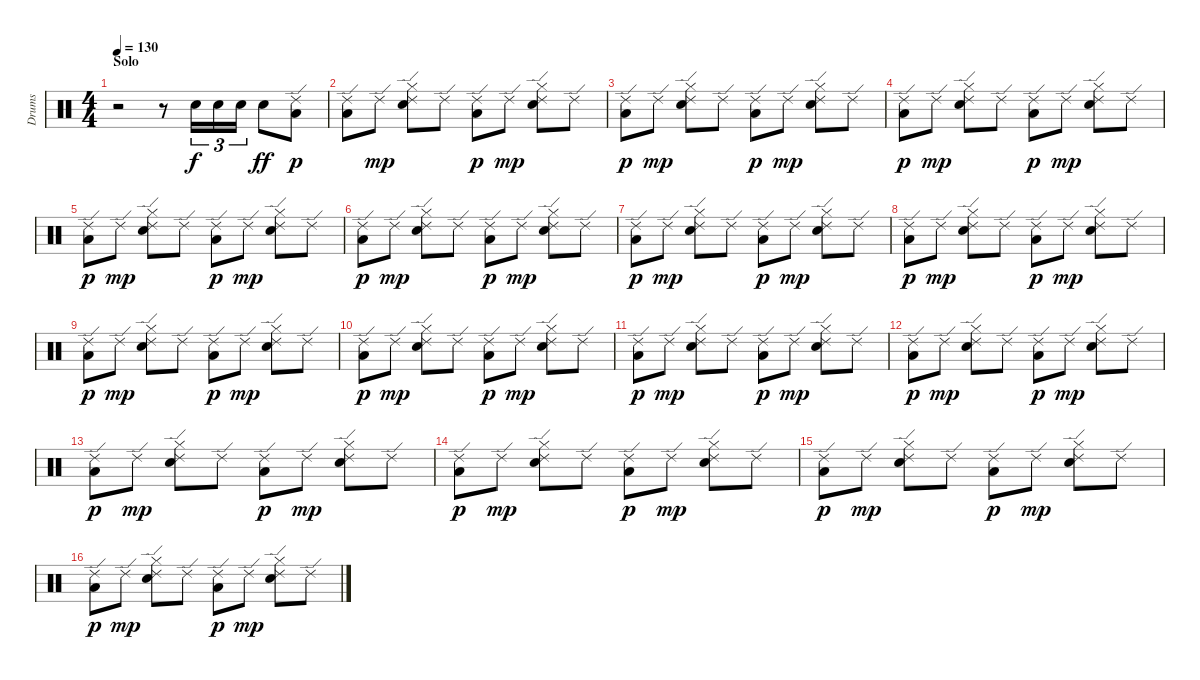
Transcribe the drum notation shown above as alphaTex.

\track ("Drums" "Drums") {instrument percussion}
\staff {score}
\articulation defaults
\ts (4 4)
\section ("" "Solo")
\tempo 130
\clef neutral
\ks c
r.2{dy mp} r.8 "Snare (hit) 2".16{tu (3 2) dy f} "Snare (hit) 2".16{tu (3 2)} "Snare (hit) 2".16{tu (3 2)} "Snare (hit) 2".8{dy ff} ("Ride (edge) 2" "Low Floor Tom (hit)").8{dy p} |
("Ride (edge) 2" "Low Floor Tom (hit)").8 "Ride (edge) 2".8{dy mp} ("Ride (edge) 2" "Electric Snare (hit)" "Hi-Hat (closed)").8 "Ride (edge) 2".8 ("Ride (edge) 2" "Low Floor Tom (hit)").8{dy p} "Ride (edge) 2".8{dy mp} ("Ride (edge) 2" "Electric Snare (hit)" "Hi-Hat (closed)").8 "Ride (edge) 2".8 |
("Ride (edge) 2" "Low Floor Tom (hit)").8{dy p} "Ride (edge) 2".8{dy mp} ("Ride (edge) 2" "Electric Snare (hit)" "Hi-Hat (closed)").8 "Ride (edge) 2".8 ("Ride (edge) 2" "Low Floor Tom (hit)").8{dy p} "Ride (edge) 2".8{dy mp} ("Ride (edge) 2" "Electric Snare (hit)" "Hi-Hat (closed)").8 "Ride (edge) 2".8 |
("Ride (edge) 2" "Low Floor Tom (hit)").8{dy p} "Ride (edge) 2".8{dy mp} ("Ride (edge) 2" "Electric Snare (hit)" "Hi-Hat (closed)").8 "Ride (edge) 2".8 ("Ride (edge) 2" "Low Floor Tom (hit)").8{dy p} "Ride (edge) 2".8{dy mp} ("Ride (edge) 2" "Electric Snare (hit)" "Hi-Hat (closed)").8 "Ride (edge) 2".8 |
("Ride (edge) 2" "Low Floor Tom (hit)").8{dy p} "Ride (edge) 2".8{dy mp} ("Ride (edge) 2" "Electric Snare (hit)" "Hi-Hat (closed)").8 "Ride (edge) 2".8 ("Ride (edge) 2" "Low Floor Tom (hit)").8{dy p} "Ride (edge) 2".8{dy mp} ("Ride (edge) 2" "Electric Snare (hit)" "Hi-Hat (closed)").8 "Ride (edge) 2".8 |
("Ride (edge) 2" "Low Floor Tom (hit)").8{dy p} "Ride (edge) 2".8{dy mp} ("Ride (edge) 2" "Electric Snare (hit)" "Hi-Hat (closed)").8 "Ride (edge) 2".8 ("Ride (edge) 2" "Low Floor Tom (hit)").8{dy p} "Ride (edge) 2".8{dy mp} ("Ride (edge) 2" "Electric Snare (hit)" "Hi-Hat (closed)").8 "Ride (edge) 2".8 |
("Ride (edge) 2" "Low Floor Tom (hit)").8{dy p} "Ride (edge) 2".8{dy mp} ("Ride (edge) 2" "Electric Snare (hit)" "Hi-Hat (closed)").8 "Ride (edge) 2".8 ("Ride (edge) 2" "Low Floor Tom (hit)").8{dy p} "Ride (edge) 2".8{dy mp} ("Ride (edge) 2" "Electric Snare (hit)" "Hi-Hat (closed)").8 "Ride (edge) 2".8 |
("Ride (edge) 2" "Low Floor Tom (hit)").8{dy p} "Ride (edge) 2".8{dy mp} ("Ride (edge) 2" "Electric Snare (hit)" "Hi-Hat (closed)").8 "Ride (edge) 2".8 ("Ride (edge) 2" "Low Floor Tom (hit)").8{dy p} "Ride (edge) 2".8{dy mp} ("Ride (edge) 2" "Electric Snare (hit)" "Hi-Hat (closed)").8 "Ride (edge) 2".8 |
("Ride (edge) 2" "Low Floor Tom (hit)").8{dy p} "Ride (edge) 2".8{dy mp} ("Ride (edge) 2" "Electric Snare (hit)" "Hi-Hat (closed)").8 "Ride (edge) 2".8 ("Ride (edge) 2" "Low Floor Tom (hit)").8{dy p} "Ride (edge) 2".8{dy mp} ("Ride (edge) 2" "Electric Snare (hit)" "Hi-Hat (closed)").8 "Ride (edge) 2".8 |
("Ride (edge) 2" "Low Floor Tom (hit)").8{dy p} "Ride (edge) 2".8{dy mp} ("Ride (edge) 2" "Electric Snare (hit)" "Hi-Hat (closed)").8 "Ride (edge) 2".8 ("Ride (edge) 2" "Low Floor Tom (hit)").8{dy p} "Ride (edge) 2".8{dy mp} ("Ride (edge) 2" "Electric Snare (hit)" "Hi-Hat (closed)").8 "Ride (edge) 2".8 |
("Ride (edge) 2" "Low Floor Tom (hit)").8{dy p} "Ride (edge) 2".8{dy mp} ("Ride (edge) 2" "Electric Snare (hit)" "Hi-Hat (closed)").8 "Ride (edge) 2".8 ("Ride (edge) 2" "Low Floor Tom (hit)").8{dy p} "Ride (edge) 2".8{dy mp} ("Ride (edge) 2" "Electric Snare (hit)" "Hi-Hat (closed)").8 "Ride (edge) 2".8 |
("Ride (edge) 2" "Low Floor Tom (hit)").8{dy p} "Ride (edge) 2".8{dy mp} ("Ride (edge) 2" "Electric Snare (hit)" "Hi-Hat (closed)").8 "Ride (edge) 2".8 ("Ride (edge) 2" "Low Floor Tom (hit)").8{dy p} "Ride (edge) 2".8{dy mp} ("Ride (edge) 2" "Electric Snare (hit)" "Hi-Hat (closed)").8 "Ride (edge) 2".8 |
("Ride (edge) 2" "Low Floor Tom (hit)").8{dy p} "Ride (edge) 2".8{dy mp} ("Ride (edge) 2" "Electric Snare (hit)" "Hi-Hat (closed)").8 "Ride (edge) 2".8 ("Ride (edge) 2" "Low Floor Tom (hit)").8{dy p} "Ride (edge) 2".8{dy mp} ("Ride (edge) 2" "Electric Snare (hit)" "Hi-Hat (closed)").8 "Ride (edge) 2".8 |
("Ride (edge) 2" "Low Floor Tom (hit)").8{dy p} "Ride (edge) 2".8{dy mp} ("Ride (edge) 2" "Electric Snare (hit)" "Hi-Hat (closed)").8 "Ride (edge) 2".8 ("Ride (edge) 2" "Low Floor Tom (hit)").8{dy p} "Ride (edge) 2".8{dy mp} ("Ride (edge) 2" "Electric Snare (hit)" "Hi-Hat (closed)").8 "Ride (edge) 2".8 |
("Ride (edge) 2" "Low Floor Tom (hit)").8{dy p} "Ride (edge) 2".8{dy mp} ("Ride (edge) 2" "Electric Snare (hit)" "Hi-Hat (closed)").8 "Ride (edge) 2".8 ("Ride (edge) 2" "Low Floor Tom (hit)").8{dy p} "Ride (edge) 2".8{dy mp} ("Ride (edge) 2" "Electric Snare (hit)" "Hi-Hat (closed)").8 "Ride (edge) 2".8 |
("Ride (edge) 2" "Low Floor Tom (hit)").8{dy p} "Ride (edge) 2".8{dy mp} ("Ride (edge) 2" "Electric Snare (hit)" "Hi-Hat (closed)").8 "Ride (edge) 2".8 ("Ride (edge) 2" "Low Floor Tom (hit)").8{dy p} "Ride (edge) 2".8{dy mp} ("Ride (edge) 2" "Electric Snare (hit)" "Hi-Hat (closed)").8 "Ride (edge) 2".8
